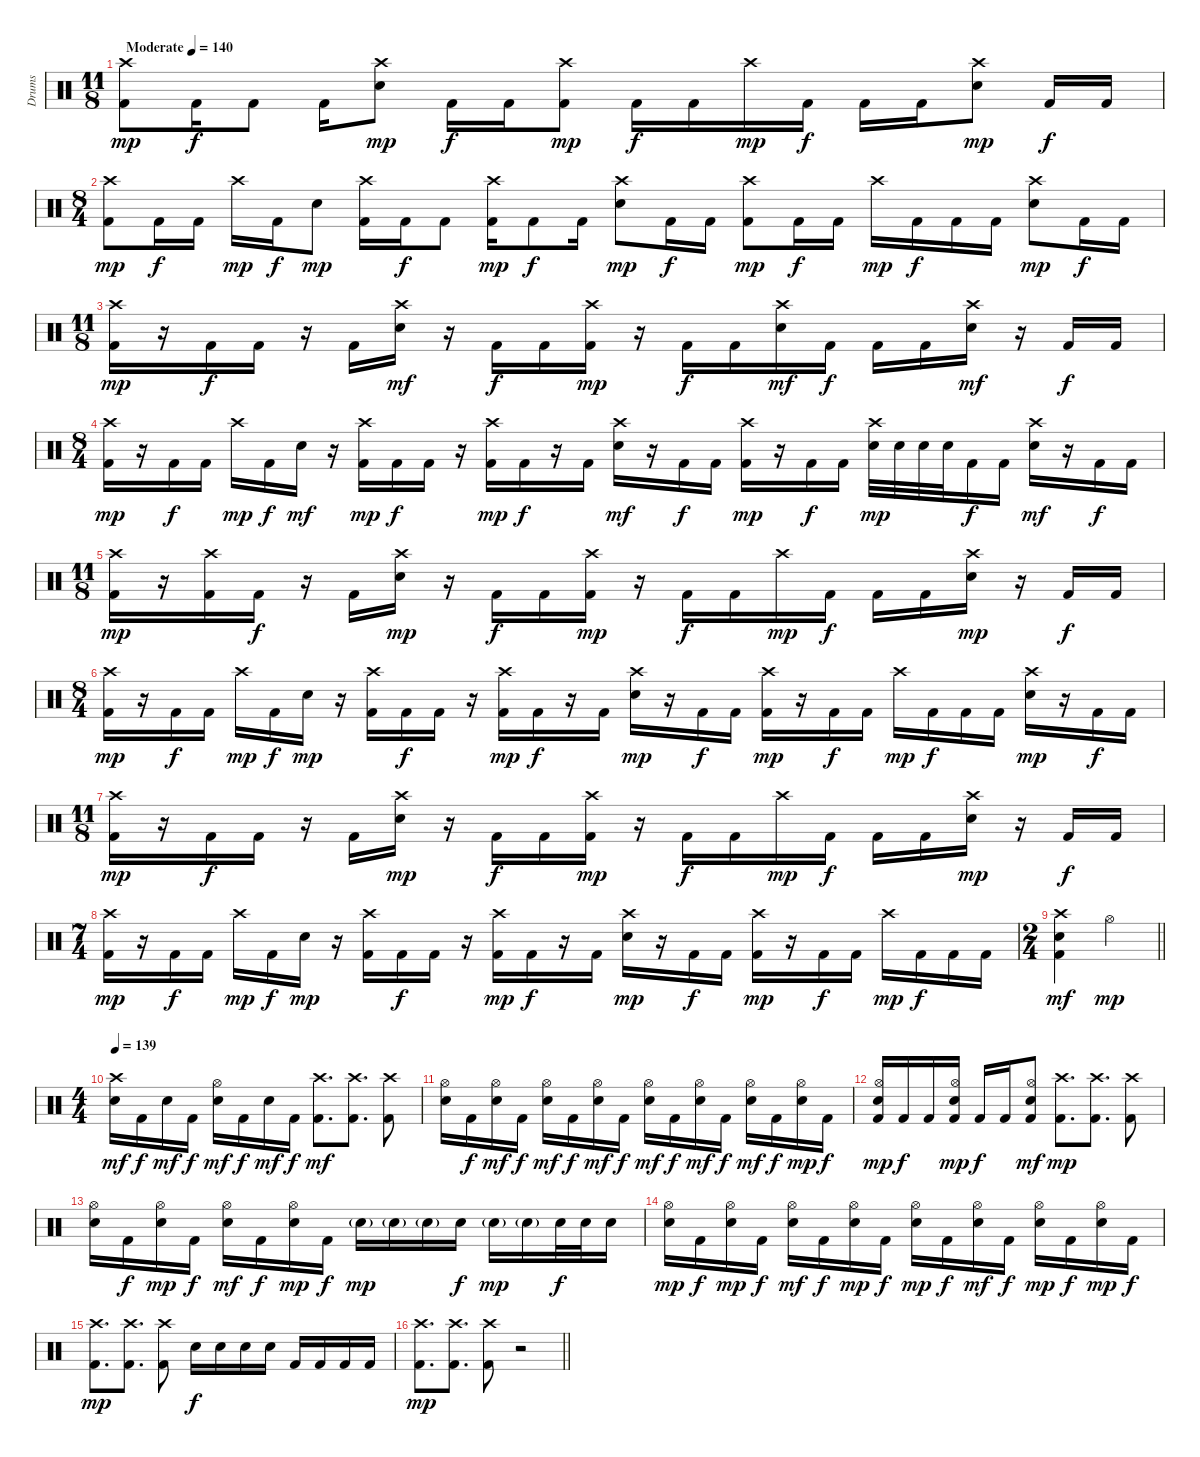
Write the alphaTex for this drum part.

\track ("Drums" "Drums") {instrument percussion}
\staff {score}
\articulation defaults
\ts (11 8)
\tempo (140 "Moderate")
\clef neutral
\ks c
("Crash high (hit)" "Kick (hit) 2").8{dy mp} "Kick (hit) 2".16{dy f} "Kick (hit) 2".8 "Kick (hit) 2".16 ("Crash high (hit)" "Electric Snare (hit)").8{dy mp} "Kick (hit) 2".16{dy f} "Kick (hit) 2".16 ("Crash high (hit)" "Kick (hit) 2").8{dy mp} "Kick (hit) 2".16{dy f} "Kick (hit) 2".16 "Crash high (hit)".16{dy mp} "Kick (hit) 2".16{dy f} "Kick (hit) 2".16 "Kick (hit) 2".16 ("Crash high (hit)" "Electric Snare (hit)").8{dy mp} "Kick (hit) 2".16{dy f} "Kick (hit) 2".16 |
\ts (8 4)
("Crash high (hit)" "Kick (hit) 2").8{dy mp} "Kick (hit) 2".16{dy f} "Kick (hit) 2".16 "Crash high (hit)".16{dy mp} "Kick (hit) 2".16{dy f} "Electric Snare (hit)".8{dy mp} ("Crash high (hit)" "Kick (hit) 2").16 "Kick (hit) 2".16{dy f} "Kick (hit) 2".8 ("Crash high (hit)" "Kick (hit) 2").16{dy mp} "Kick (hit) 2".8{dy f} "Kick (hit) 2".16 ("Crash high (hit)" "Electric Snare (hit)").8{dy mp} "Kick (hit) 2".16{dy f} "Kick (hit) 2".16 ("Crash high (hit)" "Kick (hit) 2").8{dy mp} "Kick (hit) 2".16{dy f} "Kick (hit) 2".16 "Crash high (hit)".16{dy mp} "Kick (hit) 2".16{dy f} "Kick (hit) 2".16 "Kick (hit) 2".16 ("Crash high (hit)" "Electric Snare (hit)").8{dy mp} "Kick (hit) 2".16{dy f} "Kick (hit) 2".16 |
\ts (11 8)
("Crash high (hit)" "Kick (hit) 2").16{dy mp} r.16 "Kick (hit) 2".16{dy f} "Kick (hit) 2".16 r.16 "Kick (hit) 2".16 ("Crash high (hit)" "Electric Snare (hit)").16{dy mf} r.16 "Kick (hit) 2".16{dy f} "Kick (hit) 2".16 ("Crash high (hit)" "Kick (hit) 2").16{dy mp} r.16 "Kick (hit) 2".16{dy f} "Kick (hit) 2".16 ("Crash high (hit)" "Electric Snare (hit)").16{dy mf} "Kick (hit) 2".16{dy f} "Kick (hit) 2".16 "Kick (hit) 2".16 ("Crash high (hit)" "Electric Snare (hit)").16{dy mf} r.16 "Kick (hit) 2".16{dy f} "Kick (hit) 2".16 |
\ts (8 4)
("Crash high (hit)" "Kick (hit) 2").16{dy mp} r.16 "Kick (hit) 2".16{dy f} "Kick (hit) 2".16 "Crash high (hit)".16{dy mp} "Kick (hit) 2".16{dy f} "Electric Snare (hit)".16{dy mf} r.16 ("Crash high (hit)" "Kick (hit) 2").16{dy mp} "Kick (hit) 2".16{dy f} "Kick (hit) 2".16 r.16 ("Crash high (hit)" "Kick (hit) 2").16{dy mp} "Kick (hit) 2".16{dy f} r.16 "Kick (hit) 2".16 ("Crash high (hit)" "Electric Snare (hit)").16{dy mf} r.16 "Kick (hit) 2".16{dy f} "Kick (hit) 2".16 ("Crash high (hit)" "Kick (hit) 2").16{dy mp} r.16 "Kick (hit) 2".16{dy f} "Kick (hit) 2".16 ("Crash high (hit)" "Electric Snare (hit)").32{dy mp} "Electric Snare (hit)".32 "Electric Snare (hit)".32 "Electric Snare (hit)".32 "Kick (hit) 2".16{dy f} "Kick (hit) 2".16 ("Crash high (hit)" "Electric Snare (hit)").16{dy mf} r.16 "Kick (hit) 2".16{dy f} "Kick (hit) 2".16 |
\ts (11 8)
("Crash high (hit)" "Kick (hit) 2").16{dy mp} r.16 ("Crash high (hit)" "Kick (hit) 2").16 "Kick (hit) 2".16{dy f} r.16 "Kick (hit) 2".16 ("Crash high (hit)" "Electric Snare (hit)").16{dy mp} r.16 "Kick (hit) 2".16{dy f} "Kick (hit) 2".16 ("Crash high (hit)" "Kick (hit) 2").16{dy mp} r.16 "Kick (hit) 2".16{dy f} "Kick (hit) 2".16 "Crash high (hit)".16{dy mp} "Kick (hit) 2".16{dy f} "Kick (hit) 2".16 "Kick (hit) 2".16 ("Crash high (hit)" "Electric Snare (hit)").16{dy mp} r.16 "Kick (hit) 2".16{dy f} "Kick (hit) 2".16 |
\ts (8 4)
("Crash high (hit)" "Kick (hit) 2").16{dy mp} r.16 "Kick (hit) 2".16{dy f} "Kick (hit) 2".16 "Crash high (hit)".16{dy mp} "Kick (hit) 2".16{dy f} "Electric Snare (hit)".16{dy mp} r.16 ("Crash high (hit)" "Kick (hit) 2").16 "Kick (hit) 2".16{dy f} "Kick (hit) 2".16 r.16 ("Crash high (hit)" "Kick (hit) 2").16{dy mp} "Kick (hit) 2".16{dy f} r.16 "Kick (hit) 2".16 ("Crash high (hit)" "Electric Snare (hit)").16{dy mp} r.16 "Kick (hit) 2".16{dy f} "Kick (hit) 2".16 ("Crash high (hit)" "Kick (hit) 2").16{dy mp} r.16 "Kick (hit) 2".16{dy f} "Kick (hit) 2".16 "Crash high (hit)".16{dy mp} "Kick (hit) 2".16{dy f} "Kick (hit) 2".16 "Kick (hit) 2".16 ("Crash high (hit)" "Electric Snare (hit)").16{dy mp} r.16 "Kick (hit) 2".16{dy f} "Kick (hit) 2".16 |
\ts (11 8)
("Crash high (hit)" "Kick (hit) 2").16{dy mp} r.16 "Kick (hit) 2".16{dy f} "Kick (hit) 2".16 r.16 "Kick (hit) 2".16 ("Crash high (hit)" "Electric Snare (hit)").16{dy mp} r.16 "Kick (hit) 2".16{dy f} "Kick (hit) 2".16 ("Crash high (hit)" "Kick (hit) 2").16{dy mp} r.16 "Kick (hit) 2".16{dy f} "Kick (hit) 2".16 "Crash high (hit)".16{dy mp} "Kick (hit) 2".16{dy f} "Kick (hit) 2".16 "Kick (hit) 2".16 ("Crash high (hit)" "Electric Snare (hit)").16{dy mp} r.16 "Kick (hit) 2".16{dy f} "Kick (hit) 2".16 |
\ts (7 4)
("Crash high (hit)" "Kick (hit) 2").16{dy mp} r.16 "Kick (hit) 2".16{dy f} "Kick (hit) 2".16 "Crash high (hit)".16{dy mp} "Kick (hit) 2".16{dy f} "Electric Snare (hit)".16{dy mp} r.16 ("Crash high (hit)" "Kick (hit) 2").16 "Kick (hit) 2".16{dy f} "Kick (hit) 2".16 r.16 ("Crash high (hit)" "Kick (hit) 2").16{dy mp} "Kick (hit) 2".16{dy f} r.16 "Kick (hit) 2".16 ("Crash high (hit)" "Electric Snare (hit)").16{dy mp} r.16 "Kick (hit) 2".16{dy f} "Kick (hit) 2".16 ("Crash high (hit)" "Kick (hit) 2").16{dy mp} r.16 "Kick (hit) 2".16{dy f} "Kick (hit) 2".16 "Crash high (hit)".16{dy mp} "Kick (hit) 2".16{dy f} "Kick (hit) 2".16 "Kick (hit) 2".16 |
\ts (2 4)
\barLineRight lightlight
("Crash high (hit)" "Electric Snare (hit)" "Kick (hit) 2").4{dy mf} "Hi-Hat (open)".4{dy mp} |
\ts (4 4)
\tempo 139
("Crash high (hit)" "Snare (hit) 2").16{dy mf} "Kick (hit) 2".16{dy f} "Snare (hit) 2".16{dy mf} "Kick (hit) 2".16{dy f} ("Hi-Hat (open)" "Snare (hit) 2").16{dy mf} "Kick (hit) 2".16{dy f} "Snare (hit) 2".16{dy mf} "Kick (hit) 2".16{dy f} ("Crash high (hit)" "Kick (hit) 2").8{d dy mf} ("Crash high (hit)" "Kick (hit) 2").8{d} ("Crash high (hit)" "Kick (hit) 2").8 |
("Hi-Hat (open)" "Snare (hit) 2").16 "Kick (hit) 2".16{dy f} ("Hi-Hat (open)" "Snare (hit) 2").16{dy mf} "Kick (hit) 2".16{dy f} ("Hi-Hat (open)" "Snare (hit) 2").16{dy mf} "Kick (hit) 2".16{dy f} ("Hi-Hat (open)" "Snare (hit) 2").16{dy mf} "Kick (hit) 2".16{dy f} ("Hi-Hat (open)" "Snare (hit) 2").16{dy mf} "Kick (hit) 2".16{dy f} ("Hi-Hat (open)" "Snare (hit) 2").16{dy mf} "Kick (hit) 2".16{dy f} ("Hi-Hat (open)" "Snare (hit) 2").16{dy mf} "Kick (hit) 2".16{dy f} ("Hi-Hat (open)" "Snare (hit) 2").16{dy mp} "Kick (hit) 2".16{dy f} |
("Hi-Hat (open)" "Snare (hit) 2" "Kick (hit) 2").16{dy mp} "Kick (hit) 2".16{dy f} "Kick (hit) 2".16 ("Hi-Hat (open)" "Snare (hit) 2" "Kick (hit) 2").16{dy mp} "Kick (hit) 2".16{dy f} "Kick (hit) 2".16 ("Hi-Hat (open)" "Snare (hit) 2" "Kick (hit) 2").8{dy mf} ("Crash high (hit)" "Kick (hit) 2").8{d dy mp} ("Crash high (hit)" "Kick (hit) 2").8{d} ("Crash high (hit)" "Kick (hit) 2").8 |
("Hi-Hat (open)" "Snare (hit) 2").16 "Kick (hit) 2".16{dy f} ("Hi-Hat (open)" "Snare (hit) 2").16{dy mp} "Kick (hit) 2".16{dy f} ("Hi-Hat (open)" "Snare (hit) 2").16{dy mf} "Kick (hit) 2".16{dy f} ("Hi-Hat (open)" "Snare (hit) 2").16{dy mp} "Kick (hit) 2".16{dy f} "Snare (hit) 2"{g}.16{dy mp} "Snare (hit) 2"{g}.16 "Snare (hit) 2"{g}.16 "Snare (hit) 2".16{dy f} "Snare (hit) 2"{g}.16{dy mp} "Snare (hit) 2"{g}.16 "Snare (hit) 2".32{dy f} "Snare (hit) 2".32 "Snare (hit) 2".16 |
("Hi-Hat (open)" "Snare (hit) 2").16{dy mp} "Kick (hit) 2".16{dy f} ("Hi-Hat (open)" "Snare (hit) 2").16{dy mp} "Kick (hit) 2".16{dy f} ("Hi-Hat (open)" "Snare (hit) 2").16{dy mf} "Kick (hit) 2".16{dy f} ("Hi-Hat (open)" "Snare (hit) 2").16{dy mp} "Kick (hit) 2".16{dy f} ("Hi-Hat (open)" "Snare (hit) 2").16{dy mp} "Kick (hit) 2".16{dy f} ("Hi-Hat (open)" "Snare (hit) 2").16{dy mf} "Kick (hit) 2".16{dy f} ("Hi-Hat (open)" "Snare (hit) 2").16{dy mp} "Kick (hit) 2".16{dy f} ("Hi-Hat (open)" "Snare (hit) 2").16{dy mp} "Kick (hit) 2".16{dy f} |
("Crash high (hit)" "Kick (hit) 2").8{d dy mp} ("Crash high (hit)" "Kick (hit) 2").8{d} ("Crash high (hit)" "Kick (hit) 2").8 "Snare (hit) 2".16{dy f} "Snare (hit) 2".16 "Snare (hit) 2".16 "Snare (hit) 2".16 "Kick (hit) 2".16 "Kick (hit) 2".16 "Kick (hit) 2".16 "Kick (hit) 2".16 |
\barLineRight lightlight
("Crash high (hit)" "Kick (hit) 2").8{d dy mp} ("Crash high (hit)" "Kick (hit) 2").8{d} ("Crash high (hit)" "Kick (hit) 2").8 r.2
